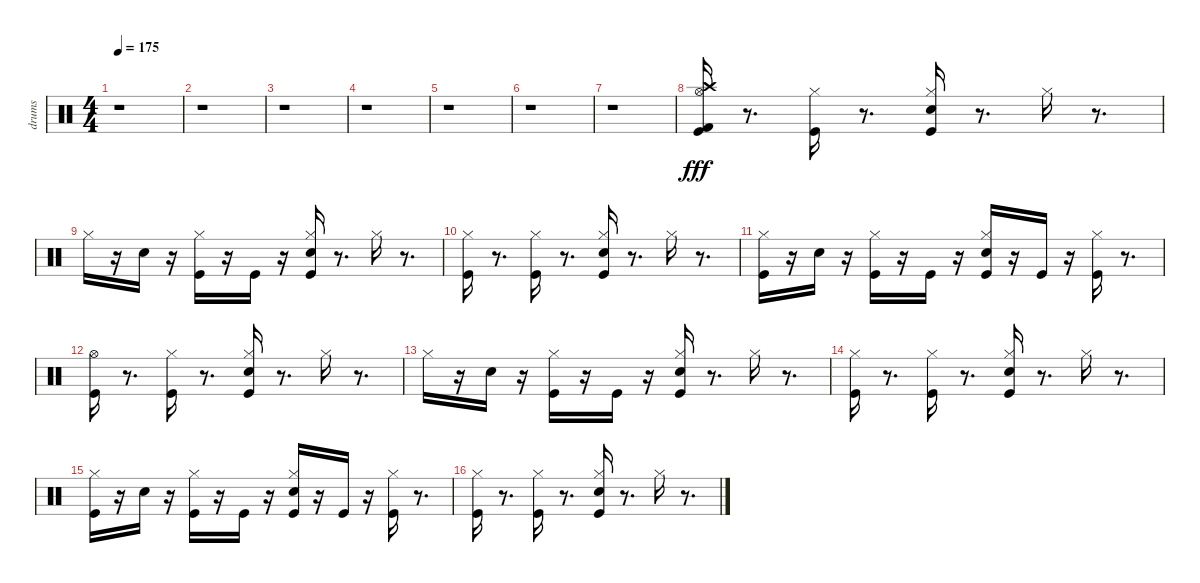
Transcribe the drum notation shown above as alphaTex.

\track ("drums" "drums") {instrument percussion}
\staff {score}
\articulation defaults
\ts (4 4)
\tempo 175
\clef neutral
\ks c
r.1{dy fff} |
r.1 |
r.1 |
r.1 |
r.1 |
r.1 |
r.1 |
("Kick (hit)" "Hi-Hat (open)" "Crash high (hit)" "Kick (hit) 2").16 r.8{d} ("Kick (hit)" "Hi-Hat (closed)").16 r.8{d} ("Snare (hit) 2" "Kick (hit)" "Hi-Hat (closed)").16 r.8{d} "Hi-Hat (closed)".16 r.8{d} |
"Hi-Hat (closed)".16 r.16 "Snare (hit) 2".16 r.16 ("Hi-Hat (closed)" "Kick (hit)").16 r.16 "Kick (hit)".16 r.16 ("Hi-Hat (closed)" "Snare (hit) 2" "Kick (hit)").16 r.8{d} "Hi-Hat (closed)".16 r.8{d} |
("Kick (hit)" "Hi-Hat (closed)").16 r.8{d} ("Kick (hit)" "Hi-Hat (closed)").16 r.8{d} ("Snare (hit) 2" "Kick (hit)" "Hi-Hat (closed)").16 r.8{d} "Hi-Hat (closed)".16 r.8{d} |
("Hi-Hat (closed)" "Kick (hit)").16 r.16 "Snare (hit) 2".16 r.16 ("Hi-Hat (closed)" "Kick (hit)").16 r.16 "Kick (hit)".16 r.16 ("Hi-Hat (closed)" "Snare (hit) 2" "Kick (hit)").16 r.16 "Kick (hit)".16 r.16 ("Hi-Hat (closed)" "Kick (hit)").16 r.8{d} |
("Kick (hit)" "Hi-Hat (open)").16 r.8{d} ("Kick (hit)" "Hi-Hat (closed)").16 r.8{d} ("Snare (hit) 2" "Kick (hit)" "Hi-Hat (closed)").16 r.8{d} "Hi-Hat (closed)".16 r.8{d} |
"Hi-Hat (closed)".16 r.16 "Snare (hit) 2".16 r.16 ("Hi-Hat (closed)" "Kick (hit)").16 r.16 "Kick (hit)".16 r.16 ("Hi-Hat (closed)" "Snare (hit) 2" "Kick (hit)").16 r.8{d} "Hi-Hat (closed)".16 r.8{d} |
("Kick (hit)" "Hi-Hat (closed)").16 r.8{d} ("Kick (hit)" "Hi-Hat (closed)").16 r.8{d} ("Snare (hit) 2" "Kick (hit)" "Hi-Hat (closed)").16 r.8{d} "Hi-Hat (closed)".16 r.8{d} |
("Hi-Hat (closed)" "Kick (hit)").16 r.16 "Snare (hit) 2".16 r.16 ("Hi-Hat (closed)" "Kick (hit)").16 r.16 "Kick (hit)".16 r.16 ("Hi-Hat (closed)" "Snare (hit) 2" "Kick (hit)").16 r.16 "Kick (hit)".16 r.16 ("Hi-Hat (closed)" "Kick (hit)").16 r.8{d} |
("Kick (hit)" "Hi-Hat (closed)").16 r.8{d} ("Kick (hit)" "Hi-Hat (closed)").16 r.8{d} ("Snare (hit) 2" "Kick (hit)" "Hi-Hat (closed)").16 r.8{d} "Hi-Hat (closed)".16 r.8{d}
